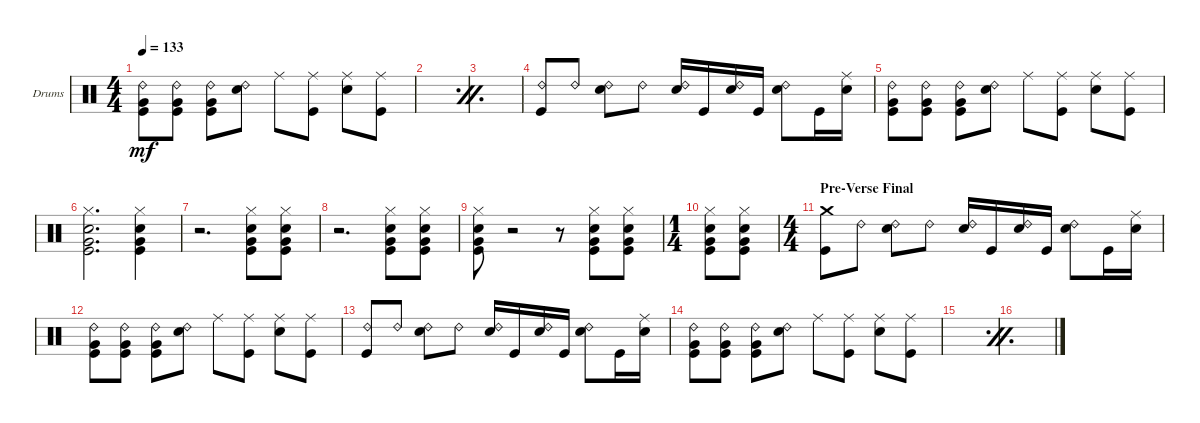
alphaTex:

\defaultSystemsLayout 4
\bracketExtendMode groupsimilarinstruments
\firstSystemTrackNameOrientation horizontal
\otherSystemsTrackNameOrientation horizontal
\chordDiagramsInScore
\track ("Drumkit" "Drums") {instrument percussion}
\staff {score}
\articulation defaults
\ts (4 4)
\tempo 133
\clef neutral
\ks c
("Very Low Tom (hit)" "Kick (hit)" "Ride (bell) 2").8{dy mf} ("Very Low Tom (hit)" "Kick (hit)" "Ride (bell) 2").8 ("Very Low Tom (hit)" "Kick (hit)" "Ride (bell) 2").8 ("Snare (hit) 2" "Ride (bell) 2").8 "Ride (middle)".8 ("Kick (hit)" "Ride (middle)").8 ("Snare (hit) 2" "Ride (middle)").8 ("Kick (hit)" "Ride (middle)").8 |
\simile firstofdouble
|
\simile secondofdouble
|
\simile none
("Kick (hit)" "Ride (bell) 2").8 "Ride (bell) 2".8 ("Snare (hit) 2" "Ride (bell) 2").8 "Ride (bell) 2".8 ("Snare (hit) 2" "Ride (bell) 2").16 "Kick (hit)".16 ("Snare (hit) 2" "Ride (bell) 2").16 "Kick (hit)".16 ("Snare (hit) 2" "Ride (bell) 2").8 "Kick (hit)".16 ("Snare (hit) 2" "Ride (middle)").16 |
("Very Low Tom (hit)" "Kick (hit)" "Ride (bell) 2").8 ("Very Low Tom (hit)" "Kick (hit)" "Ride (bell) 2").8 ("Very Low Tom (hit)" "Kick (hit)" "Ride (bell) 2").8 ("Snare (hit) 2" "Ride (bell) 2").8 "Ride (middle)".8 ("Kick (hit)" "Ride (middle)").8 ("Snare (hit) 2" "Ride (middle)").8 ("Kick (hit)" "Ride (middle)").8 |
("Snare (hit) 2" "Kick (hit)" "Very Low Tom (hit)" "Hi-Hat (closed)").2{d} ("Snare (hit) 2" "Kick (hit)" "Very Low Tom (hit)" "Hi-Hat (closed)").4 |
r.2{d} ("Snare (hit) 2" "Kick (hit)" "Very Low Tom (hit)" "Hi-Hat (closed)").8 ("Snare (hit) 2" "Kick (hit)" "Very Low Tom (hit)" "Hi-Hat (closed)").8 |
r.2{d} ("Snare (hit) 2" "Kick (hit)" "Very Low Tom (hit)" "Hi-Hat (closed)").8 ("Snare (hit) 2" "Kick (hit)" "Very Low Tom (hit)" "Hi-Hat (closed)").8 |
("Snare (hit) 2" "Kick (hit)" "Very Low Tom (hit)" "Hi-Hat (closed)").8 r.2 r.8 ("Snare (hit) 2" "Kick (hit)" "Very Low Tom (hit)" "Hi-Hat (closed)").8 ("Snare (hit) 2" "Kick (hit)" "Very Low Tom (hit)" "Hi-Hat (closed)").8 |
\ts (1 4)
("Snare (hit) 2" "Kick (hit)" "Very Low Tom (hit)" "Hi-Hat (closed)").8 ("Snare (hit) 2" "Kick (hit)" "Very Low Tom (hit)" "Hi-Hat (closed)").8 |
\ts (4 4)
\section ("" "Pre-Verse Final")
("Kick (hit)" "Crash medium (hit)").8 "Ride (bell) 2".8 ("Snare (hit) 2" "Ride (bell) 2").8 "Ride (bell) 2".8 ("Snare (hit) 2" "Ride (bell) 2").16 "Kick (hit)".16 ("Snare (hit) 2" "Ride (bell) 2").16 "Kick (hit)".16 ("Snare (hit) 2" "Ride (bell) 2").8 "Kick (hit)".16 ("Snare (hit) 2" "Ride (middle)").16 |
("Very Low Tom (hit)" "Kick (hit)" "Ride (bell) 2").8 ("Very Low Tom (hit)" "Kick (hit)" "Ride (bell) 2").8 ("Very Low Tom (hit)" "Kick (hit)" "Ride (bell) 2").8 ("Snare (hit) 2" "Ride (bell) 2").8 "Ride (middle)".8 ("Kick (hit)" "Ride (middle)").8 ("Snare (hit) 2" "Ride (middle)").8 ("Kick (hit)" "Ride (middle)").8 |
("Kick (hit)" "Ride (bell) 2").8 "Ride (bell) 2".8 ("Snare (hit) 2" "Ride (bell) 2").8 "Ride (bell) 2".8 ("Snare (hit) 2" "Ride (bell) 2").16 "Kick (hit)".16 ("Snare (hit) 2" "Ride (bell) 2").16 "Kick (hit)".16 ("Snare (hit) 2" "Ride (bell) 2").8 "Kick (hit)".16 ("Snare (hit) 2" "Ride (middle)").16 |
("Very Low Tom (hit)" "Kick (hit)" "Ride (bell) 2").8 ("Very Low Tom (hit)" "Kick (hit)" "Ride (bell) 2").8 ("Very Low Tom (hit)" "Kick (hit)" "Ride (bell) 2").8 ("Snare (hit) 2" "Ride (bell) 2").8 "Ride (middle)".8 ("Kick (hit)" "Ride (middle)").8 ("Snare (hit) 2" "Ride (middle)").8 ("Kick (hit)" "Ride (middle)").8 |
\simile firstofdouble
|
\simile secondofdouble
